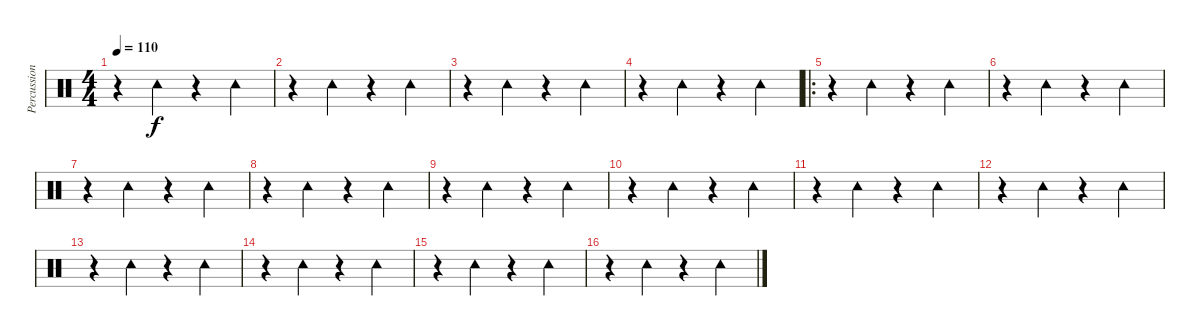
\track ("Percussions" "Percussion") {instrument percussion}
\staff {score}
\articulation defaults
\ts (4 4)
\tempo 110
\clef neutral
\ks c
r.4{dy f} "Tambourine (hit)".4 r.4 "Tambourine (hit)".4 |
r.4 "Tambourine (hit)".4 r.4 "Tambourine (hit)".4 |
r.4 "Tambourine (hit)".4 r.4 "Tambourine (hit)".4 |
r.4 "Tambourine (hit)".4 r.4 "Tambourine (hit)".4 |
\ro
r.4 "Tambourine (hit)".4 r.4 "Tambourine (hit)".4 |
r.4 "Tambourine (hit)".4 r.4 "Tambourine (hit)".4 |
r.4 "Tambourine (hit)".4 r.4 "Tambourine (hit)".4 |
r.4 "Tambourine (hit)".4 r.4 "Tambourine (hit)".4 |
r.4 "Tambourine (hit)".4 r.4 "Tambourine (hit)".4 |
r.4 "Tambourine (hit)".4 r.4 "Tambourine (hit)".4 |
r.4 "Tambourine (hit)".4 r.4 "Tambourine (hit)".4 |
r.4 "Tambourine (hit)".4 r.4 "Tambourine (hit)".4 |
r.4 "Tambourine (hit)".4 r.4 "Tambourine (hit)".4 |
r.4 "Tambourine (hit)".4 r.4 "Tambourine (hit)".4 |
r.4 "Tambourine (hit)".4 r.4 "Tambourine (hit)".4 |
r.4 "Tambourine (hit)".4 r.4 "Tambourine (hit)".4
